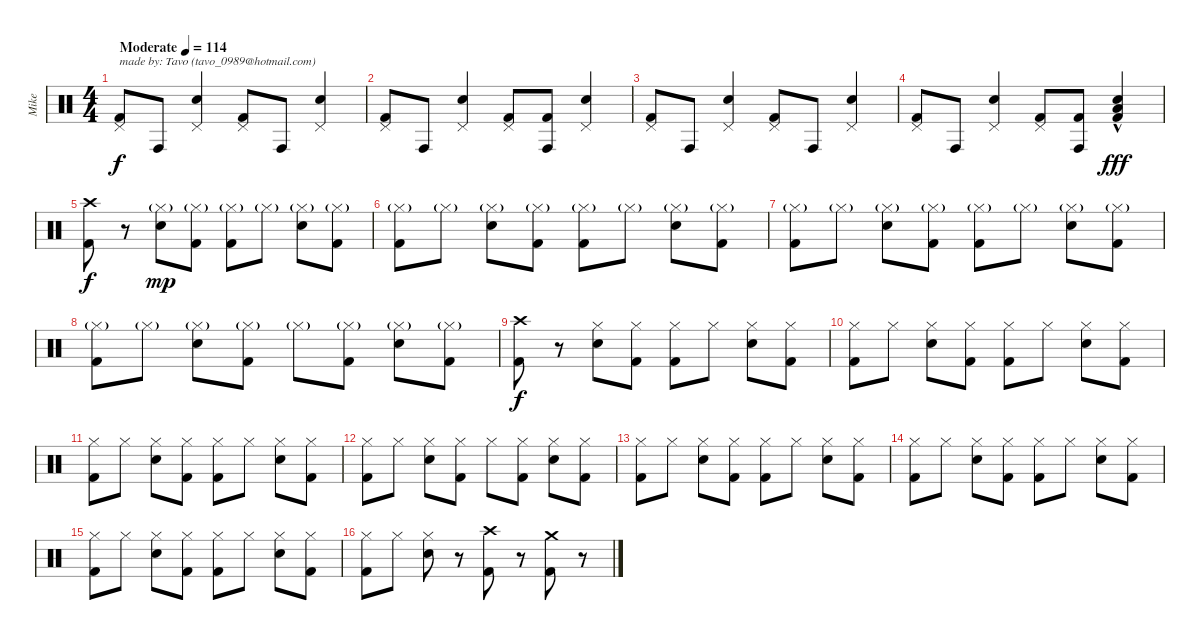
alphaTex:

\track ("Mike" "Mike") {instrument percussion}
\staff {score}
\articulation defaults
\ts (4 4)
\tempo (114 "Moderate")
\clef neutral
\ks c
("Pedal Hi-Hat (hit)" "Kick (hit) 2").8{txt "made by: Tavo (tavo_0989@hotmail.com)" dy f} "Conga high (hit)".8 ("Pedal Hi-Hat (hit)" "Electric Snare (hit)").4 ("Pedal Hi-Hat (hit)" "Kick (hit) 2").8 "Conga high (hit)".8 ("Pedal Hi-Hat (hit)" "Electric Snare (hit)").4 |
("Pedal Hi-Hat (hit)" "Kick (hit) 2").8 "Conga high (hit)".8 ("Pedal Hi-Hat (hit)" "Electric Snare (hit)").4 ("Pedal Hi-Hat (hit)" "Kick (hit) 2").8 ("Conga high (hit)" "Kick (hit) 2").8 ("Pedal Hi-Hat (hit)" "Electric Snare (hit)").4 |
("Pedal Hi-Hat (hit)" "Kick (hit) 2").8 "Conga high (hit)".8 ("Pedal Hi-Hat (hit)" "Electric Snare (hit)").4 ("Pedal Hi-Hat (hit)" "Kick (hit) 2").8 "Conga high (hit)".8 ("Pedal Hi-Hat (hit)" "Electric Snare (hit)").4 |
("Pedal Hi-Hat (hit)" "Kick (hit) 2").8 "Conga high (hit)".8 ("Pedal Hi-Hat (hit)" "Electric Snare (hit)").4 ("Pedal Hi-Hat (hit)" "Kick (hit) 2").8 ("Conga high (hit)" "Kick (hit) 2").8 ("Electric Snare (hit)"{hac} "Low Tom (hit)"{hac} "Kick (hit) 2"{hac}).4{dy fff} |
("Crash high (hit)" "Kick (hit) 2").8{dy f} r.8 ("Hi-Hat (closed)"{g} "Electric Snare (hit)").8{dy mp} ("Hi-Hat (closed)"{g} "Kick (hit) 2").8 ("Hi-Hat (closed)"{g} "Kick (hit) 2").8 "Hi-Hat (closed)"{g}.8 ("Hi-Hat (closed)"{g} "Electric Snare (hit)").8 ("Hi-Hat (closed)"{g} "Kick (hit) 2").8 |
("Hi-Hat (closed)"{g} "Kick (hit) 2").8 "Hi-Hat (closed)"{g}.8 ("Hi-Hat (closed)"{g} "Electric Snare (hit)").8 ("Hi-Hat (closed)"{g} "Kick (hit) 2").8 ("Hi-Hat (closed)"{g} "Kick (hit) 2").8 "Hi-Hat (closed)"{g}.8 ("Hi-Hat (closed)"{g} "Electric Snare (hit)").8 ("Hi-Hat (closed)"{g} "Kick (hit) 2").8 |
("Hi-Hat (closed)"{g} "Kick (hit) 2").8 "Hi-Hat (closed)"{g}.8 ("Hi-Hat (closed)"{g} "Electric Snare (hit)").8 ("Hi-Hat (closed)"{g} "Kick (hit) 2").8 ("Hi-Hat (closed)"{g} "Kick (hit) 2").8 "Hi-Hat (closed)"{g}.8 ("Hi-Hat (closed)"{g} "Electric Snare (hit)").8 ("Hi-Hat (closed)"{g} "Kick (hit) 2").8 |
("Hi-Hat (closed)"{g} "Kick (hit) 2").8 "Hi-Hat (closed)"{g}.8 ("Hi-Hat (closed)"{g} "Electric Snare (hit)").8 ("Hi-Hat (closed)"{g} "Kick (hit) 2").8 "Hi-Hat (closed)"{g}.8 ("Hi-Hat (closed)"{g} "Kick (hit) 2").8 ("Hi-Hat (closed)"{g} "Electric Snare (hit)").8 ("Hi-Hat (closed)"{g} "Kick (hit) 2").8 |
("Crash high (hit)" "Kick (hit) 2").8{dy f} r.8 ("Hi-Hat (closed)" "Electric Snare (hit)").8 ("Hi-Hat (closed)" "Kick (hit) 2").8 ("Hi-Hat (closed)" "Kick (hit) 2").8 "Hi-Hat (closed)".8 ("Hi-Hat (closed)" "Electric Snare (hit)").8 ("Hi-Hat (closed)" "Kick (hit) 2").8 |
("Hi-Hat (closed)" "Kick (hit) 2").8 "Hi-Hat (closed)".8 ("Hi-Hat (closed)" "Electric Snare (hit)").8 ("Hi-Hat (closed)" "Kick (hit) 2").8 ("Hi-Hat (closed)" "Kick (hit) 2").8 "Hi-Hat (closed)".8 ("Hi-Hat (closed)" "Electric Snare (hit)").8 ("Hi-Hat (closed)" "Kick (hit) 2").8 |
("Hi-Hat (closed)" "Kick (hit) 2").8 "Hi-Hat (closed)".8 ("Hi-Hat (closed)" "Electric Snare (hit)").8 ("Hi-Hat (closed)" "Kick (hit) 2").8 ("Hi-Hat (closed)" "Kick (hit) 2").8 "Hi-Hat (closed)".8 ("Hi-Hat (closed)" "Electric Snare (hit)").8 ("Hi-Hat (closed)" "Kick (hit) 2").8 |
("Hi-Hat (closed)" "Kick (hit) 2").8 "Hi-Hat (closed)".8 ("Hi-Hat (closed)" "Electric Snare (hit)").8 ("Hi-Hat (closed)" "Kick (hit) 2").8 "Hi-Hat (closed)".8 ("Hi-Hat (closed)" "Kick (hit) 2").8 ("Hi-Hat (closed)" "Electric Snare (hit)").8 ("Hi-Hat (closed)" "Kick (hit) 2").8 |
("Hi-Hat (closed)" "Kick (hit) 2").8 "Hi-Hat (closed)".8 ("Hi-Hat (closed)" "Electric Snare (hit)").8 ("Hi-Hat (closed)" "Kick (hit) 2").8 ("Hi-Hat (closed)" "Kick (hit) 2").8 "Hi-Hat (closed)".8 ("Hi-Hat (closed)" "Electric Snare (hit)").8 ("Hi-Hat (closed)" "Kick (hit) 2").8 |
("Hi-Hat (closed)" "Kick (hit) 2").8 "Hi-Hat (closed)".8 ("Hi-Hat (closed)" "Electric Snare (hit)").8 ("Hi-Hat (closed)" "Kick (hit) 2").8 ("Hi-Hat (closed)" "Kick (hit) 2").8 "Hi-Hat (closed)".8 ("Hi-Hat (closed)" "Electric Snare (hit)").8 ("Hi-Hat (closed)" "Kick (hit) 2").8 |
("Hi-Hat (closed)" "Kick (hit) 2").8 "Hi-Hat (closed)".8 ("Hi-Hat (closed)" "Electric Snare (hit)").8 ("Hi-Hat (closed)" "Kick (hit) 2").8 ("Hi-Hat (closed)" "Kick (hit) 2").8 "Hi-Hat (closed)".8 ("Hi-Hat (closed)" "Electric Snare (hit)").8 ("Hi-Hat (closed)" "Kick (hit) 2").8 |
("Hi-Hat (closed)" "Kick (hit) 2").8 "Hi-Hat (closed)".8 ("Hi-Hat (closed)" "Electric Snare (hit)").8 r.8 ("Crash high (hit)" "Kick (hit) 2").8 r.8 ("Crash medium (hit)" "Kick (hit) 2").8 r.8
